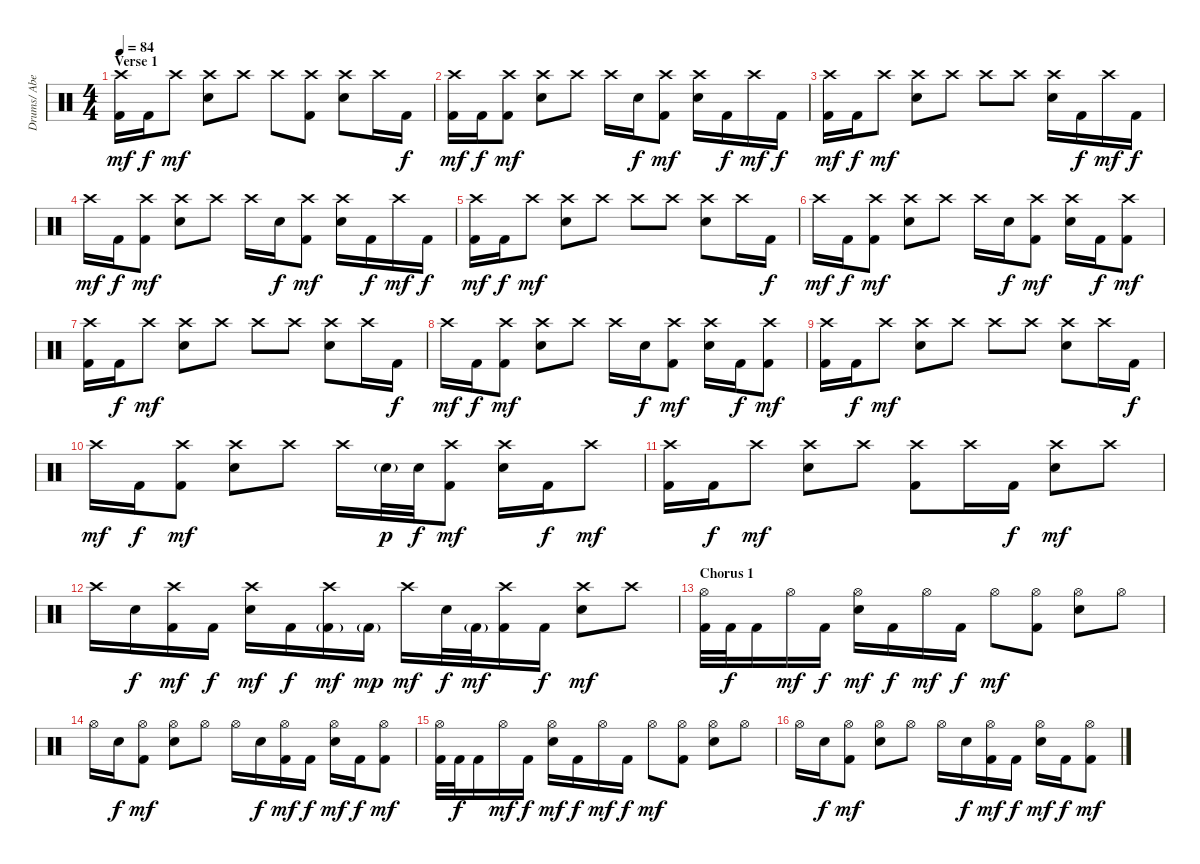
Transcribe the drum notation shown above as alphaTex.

\track ("Drums/ Abe Cunningham" "Drums/ Abe") {instrument percussion}
\staff {score}
\articulation defaults
\ts (4 4)
\section ("" "Verse 1")
\tempo 84
\clef neutral
\ks c
("Crash high (hit)" "Kick (hit) 2").16{dy mf} "Kick (hit) 2".16{dy f} "Crash high (hit)".8{dy mf} ("Crash high (hit)" "Electric Snare (hit)").8 "Crash high (hit)".8 "Crash high (hit)".8 ("Crash high (hit)" "Kick (hit) 2").8 ("Crash high (hit)" "Electric Snare (hit)").8 "Crash high (hit)".16 "Kick (hit) 2".16{dy f} |
("Crash high (hit)" "Kick (hit) 2").16{dy mf} "Kick (hit) 2".16{dy f} ("Crash high (hit)" "Kick (hit) 2").8{dy mf} ("Crash high (hit)" "Electric Snare (hit)").8 "Crash high (hit)".8 "Crash high (hit)".16 "Electric Snare (hit)".16{dy f} ("Crash high (hit)" "Kick (hit) 2").8{dy mf} ("Crash high (hit)" "Electric Snare (hit)").16 "Kick (hit) 2".16{dy f} "Crash high (hit)".16{dy mf} "Kick (hit) 2".16{dy f} |
("Crash high (hit)" "Kick (hit) 2").16{dy mf} "Kick (hit) 2".16{dy f} "Crash high (hit)".8{dy mf} ("Crash high (hit)" "Electric Snare (hit)").8 "Crash high (hit)".8 "Crash high (hit)".8 "Crash high (hit)".8 ("Crash high (hit)" "Electric Snare (hit)").16 "Kick (hit) 2".16{dy f} "Crash high (hit)".16{dy mf} "Kick (hit) 2".16{dy f} |
"Crash high (hit)".16{dy mf} "Kick (hit) 2".16{dy f} ("Crash high (hit)" "Kick (hit) 2").8{dy mf} ("Crash high (hit)" "Electric Snare (hit)").8 "Crash high (hit)".8 "Crash high (hit)".16 "Electric Snare (hit)".16{dy f} ("Crash high (hit)" "Kick (hit) 2").8{dy mf} ("Crash high (hit)" "Electric Snare (hit)").16 "Kick (hit) 2".16{dy f} "Crash high (hit)".16{dy mf} "Kick (hit) 2".16{dy f} |
("Crash high (hit)" "Kick (hit) 2").16{dy mf} "Kick (hit) 2".16{dy f} "Crash high (hit)".8{dy mf} ("Crash high (hit)" "Electric Snare (hit)").8 "Crash high (hit)".8 "Crash high (hit)".8 "Crash high (hit)".8 ("Crash high (hit)" "Electric Snare (hit)").8 "Crash high (hit)".16 "Kick (hit) 2".16{dy f} |
"Crash high (hit)".16{dy mf} "Kick (hit) 2".16{dy f} ("Crash high (hit)" "Kick (hit) 2").8{dy mf} ("Crash high (hit)" "Electric Snare (hit)").8 "Crash high (hit)".8 "Crash high (hit)".16 "Electric Snare (hit)".16{dy f} ("Crash high (hit)" "Kick (hit) 2").8{dy mf} ("Crash high (hit)" "Electric Snare (hit)").16 "Kick (hit) 2".16{dy f} ("Crash high (hit)" "Kick (hit) 2").8{dy mf} |
("Crash high (hit)" "Kick (hit) 2").16 "Kick (hit) 2".16{dy f} "Crash high (hit)".8{dy mf} ("Crash high (hit)" "Electric Snare (hit)").8 "Crash high (hit)".8 "Crash high (hit)".8 "Crash high (hit)".8 ("Crash high (hit)" "Electric Snare (hit)").8 "Crash high (hit)".16 "Kick (hit) 2".16{dy f} |
"Crash high (hit)".16{dy mf} "Kick (hit) 2".16{dy f} ("Crash high (hit)" "Kick (hit) 2").8{dy mf} ("Crash high (hit)" "Electric Snare (hit)").8 "Crash high (hit)".8 "Crash high (hit)".16 "Electric Snare (hit)".16{dy f} ("Crash high (hit)" "Kick (hit) 2").8{dy mf} ("Crash high (hit)" "Electric Snare (hit)").16 "Kick (hit) 2".16{dy f} ("Crash high (hit)" "Kick (hit) 2").8{dy mf} |
("Crash high (hit)" "Kick (hit) 2").16 "Kick (hit) 2".16{dy f} "Crash high (hit)".8{dy mf} ("Crash high (hit)" "Electric Snare (hit)").8 "Crash high (hit)".8 "Crash high (hit)".8 "Crash high (hit)".8 ("Crash high (hit)" "Electric Snare (hit)").8 "Crash high (hit)".16 "Kick (hit) 2".16{dy f} |
"Crash high (hit)".16{dy mf} "Kick (hit) 2".16{dy f} ("Crash high (hit)" "Kick (hit) 2").8{dy mf} ("Crash high (hit)" "Electric Snare (hit)").8 "Crash high (hit)".8 "Crash high (hit)".16 "Electric Snare (hit)"{g}.32{dy p} "Electric Snare (hit)".32{dy f} ("Crash high (hit)" "Kick (hit) 2").8{dy mf} ("Crash high (hit)" "Electric Snare (hit)").16 "Kick (hit) 2".16{dy f} "Crash high (hit)".8{dy mf} |
("Crash high (hit)" "Kick (hit) 2").16 "Kick (hit) 2".16{dy f} "Crash high (hit)".8{dy mf} ("Crash high (hit)" "Electric Snare (hit)").8 "Crash high (hit)".8 ("Crash high (hit)" "Kick (hit) 2").8 "Crash high (hit)".16 "Kick (hit) 2".16{dy f} ("Crash high (hit)" "Electric Snare (hit)").8{dy mf} "Crash high (hit)".8 |
"Crash high (hit)".16 "Electric Snare (hit)".16{dy f} ("Crash high (hit)" "Kick (hit) 2").16{dy mf} "Kick (hit) 2".16{dy f} ("Crash high (hit)" "Electric Snare (hit)").16{dy mf} "Kick (hit) 2".16{dy f} ("Crash high (hit)" "Kick (hit) 2"{g}).16{dy mf} "Kick (hit) 2"{g}.16{dy mp} "Crash high (hit)".16{dy mf} "Electric Snare (hit)".32{dy f} "Kick (hit) 2"{g}.32{dy mf} ("Crash high (hit)" "Kick (hit) 2").16 "Kick (hit) 2".16{dy f} ("Crash high (hit)" "Electric Snare (hit)").8{dy mf} "Crash high (hit)".8 |
\section ("" "Chorus 1")
("Hi-Hat (open)" "Kick (hit) 2").32 "Kick (hit) 2".32{dy f} "Kick (hit) 2".16 "Hi-Hat (open)".16{dy mf} "Kick (hit) 2".16{dy f} ("Hi-Hat (open)" "Electric Snare (hit)").16{dy mf} "Kick (hit) 2".16{dy f} "Hi-Hat (open)".16{dy mf} "Kick (hit) 2".16{dy f} "Hi-Hat (open)".8{dy mf} ("Hi-Hat (open)" "Kick (hit) 2").8 ("Hi-Hat (open)" "Electric Snare (hit)").8 "Hi-Hat (open)".8 |
"Hi-Hat (open)".16 "Electric Snare (hit)".16{dy f} ("Hi-Hat (open)" "Kick (hit) 2").8{dy mf} ("Hi-Hat (open)" "Electric Snare (hit)").8 "Hi-Hat (open)".8 "Hi-Hat (open)".16 "Electric Snare (hit)".16{dy f} ("Hi-Hat (open)" "Kick (hit) 2").16{dy mf} "Kick (hit) 2".16{dy f} ("Hi-Hat (open)" "Electric Snare (hit)").16{dy mf} "Kick (hit) 2".16{dy f} ("Hi-Hat (open)" "Kick (hit) 2").8{dy mf} |
("Hi-Hat (open)" "Kick (hit) 2").32 "Kick (hit) 2".32{dy f} "Kick (hit) 2".16 "Hi-Hat (open)".16{dy mf} "Kick (hit) 2".16{dy f} ("Hi-Hat (open)" "Electric Snare (hit)").16{dy mf} "Kick (hit) 2".16{dy f} "Hi-Hat (open)".16{dy mf} "Kick (hit) 2".16{dy f} "Hi-Hat (open)".8{dy mf} ("Hi-Hat (open)" "Kick (hit) 2").8 ("Hi-Hat (open)" "Electric Snare (hit)").8 "Hi-Hat (open)".8 |
"Hi-Hat (open)".16 "Electric Snare (hit)".16{dy f} ("Hi-Hat (open)" "Kick (hit) 2").8{dy mf} ("Hi-Hat (open)" "Electric Snare (hit)").8 "Hi-Hat (open)".8 "Hi-Hat (open)".16 "Electric Snare (hit)".16{dy f} ("Hi-Hat (open)" "Kick (hit) 2").16{dy mf} "Kick (hit) 2".16{dy f} ("Hi-Hat (open)" "Electric Snare (hit)").16{dy mf} "Kick (hit) 2".16{dy f} ("Hi-Hat (open)" "Kick (hit) 2").8{dy mf}
